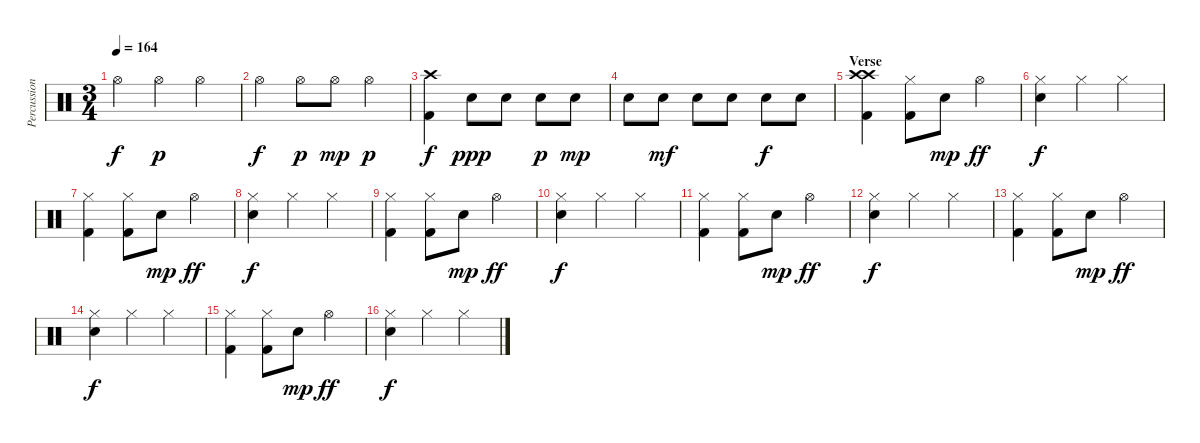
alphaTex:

\track ("Percussion" "Percussion") {instrument percussion}
\staff {score}
\articulation defaults
\ts (3 4)
\tempo 164
\clef neutral
\ks c "Hi-Hat (open)".4{dy f} "Hi-Hat (open)".4{dy p} "Hi-Hat (open)".4
|
"Hi-Hat (open)".4{dy f} "Hi-Hat (open)".8{dy p} "Hi-Hat (open)".8{dy mp} "Hi-Hat (open)".4{dy p} |
("Crash high (hit)" "Kick (hit) 2").4{dy f} "Snare (hit) 2".8{dy ppp} "Snare (hit) 2".8 "Snare (hit) 2".8{dy p} "Snare (hit) 2".8{dy mp} |
"Snare (hit) 2".8 "Snare (hit) 2".8{dy mf} "Snare (hit) 2".8 "Snare (hit) 2".8 "Snare (hit) 2".8{dy f} "Snare (hit) 2".8 |
\section ("" "Verse")
("Crash high (hit)" "Crash high (hit)" "Kick (hit) 2").4 ("Hi-Hat (closed)" "Kick (hit) 2").8 "Snare (hit) 2".8{dy mp} "Hi-Hat (open)".4{dy ff} |
("Hi-Hat (closed)" "Snare (hit) 2").4{dy f} "Hi-Hat (closed)".4 "Hi-Hat (closed)".4 |
("Hi-Hat (closed)" "Kick (hit) 2").4 ("Hi-Hat (closed)" "Kick (hit) 2").8 "Snare (hit) 2".8{dy mp} "Hi-Hat (open)".4{dy ff} |
("Hi-Hat (closed)" "Snare (hit) 2").4{dy f} "Hi-Hat (closed)".4 "Hi-Hat (closed)".4 |
("Hi-Hat (closed)" "Kick (hit) 2").4 ("Hi-Hat (closed)" "Kick (hit) 2").8 "Snare (hit) 2".8{dy mp} "Hi-Hat (open)".4{dy ff} |
("Hi-Hat (closed)" "Snare (hit) 2").4{dy f} "Hi-Hat (closed)".4 "Hi-Hat (closed)".4 |
("Hi-Hat (closed)" "Kick (hit) 2").4 ("Hi-Hat (closed)" "Kick (hit) 2").8 "Snare (hit) 2".8{dy mp} "Hi-Hat (open)".4{dy ff} |
("Hi-Hat (closed)" "Snare (hit) 2").4{dy f} "Hi-Hat (closed)".4 "Hi-Hat (closed)".4 |
("Hi-Hat (closed)" "Kick (hit) 2").4 ("Hi-Hat (closed)" "Kick (hit) 2").8 "Snare (hit) 2".8{dy mp} "Hi-Hat (open)".4{dy ff} |
("Hi-Hat (closed)" "Snare (hit) 2").4{dy f} "Hi-Hat (closed)".4 "Hi-Hat (closed)".4 |
("Hi-Hat (closed)" "Kick (hit) 2").4 ("Hi-Hat (closed)" "Kick (hit) 2").8 "Snare (hit) 2".8{dy mp} "Hi-Hat (open)".4{dy ff} |
("Hi-Hat (closed)" "Snare (hit) 2").4{dy f} "Hi-Hat (closed)".4 "Hi-Hat (closed)".4
